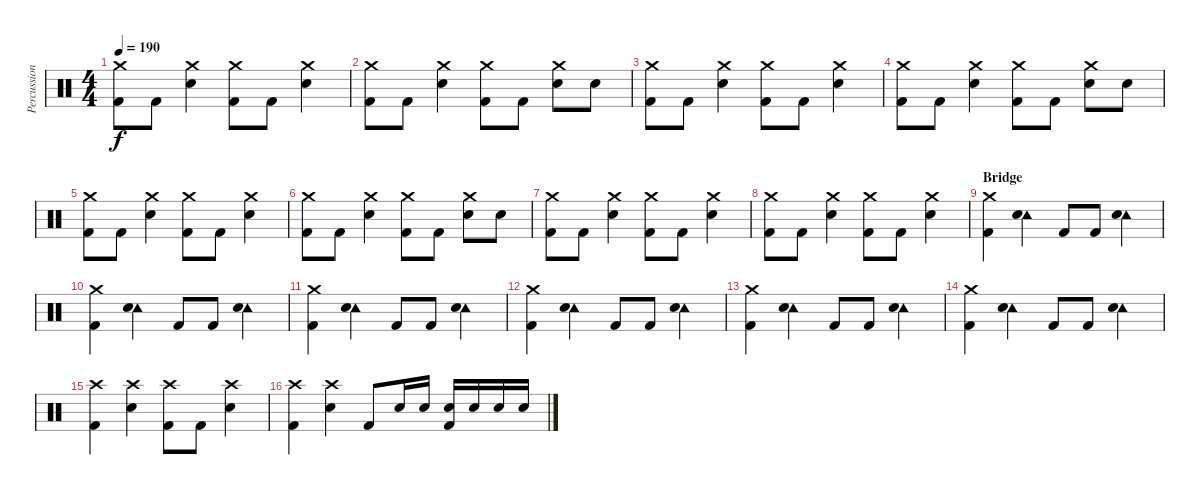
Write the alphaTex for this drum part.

\track ("Percussion" "Percussion") {instrument percussion}
\staff {score}
\articulation defaults
\ts (4 4)
\tempo 190
\clef neutral
\ks c
("Crash medium (hit)" "Kick (hit) 2").8{dy f} "Kick (hit) 2".8 ("Crash medium (hit)" "Snare (hit) 2").4 ("Crash medium (hit)" "Kick (hit) 2").8 "Kick (hit) 2".8 ("Crash medium (hit)" "Snare (hit) 2").4 |
("Crash medium (hit)" "Kick (hit) 2").8 "Kick (hit) 2".8 ("Crash medium (hit)" "Snare (hit) 2").4 ("Crash medium (hit)" "Kick (hit) 2").8 "Kick (hit) 2".8 ("Crash medium (hit)" "Snare (hit) 2").8 "Snare (hit) 2".8 |
("Crash medium (hit)" "Kick (hit) 2").8 "Kick (hit) 2".8 ("Crash medium (hit)" "Snare (hit) 2").4 ("Crash medium (hit)" "Kick (hit) 2").8 "Kick (hit) 2".8 ("Crash medium (hit)" "Snare (hit) 2").4 |
("Crash medium (hit)" "Kick (hit) 2").8 "Kick (hit) 2".8 ("Crash medium (hit)" "Snare (hit) 2").4 ("Crash medium (hit)" "Kick (hit) 2").8 "Kick (hit) 2".8 ("Crash medium (hit)" "Snare (hit) 2").8 "Snare (hit) 2".8 |
("Crash medium (hit)" "Kick (hit) 2").8 "Kick (hit) 2".8 ("Crash medium (hit)" "Snare (hit) 2").4 ("Crash medium (hit)" "Kick (hit) 2").8 "Kick (hit) 2".8 ("Crash medium (hit)" "Snare (hit) 2").4 |
("Crash medium (hit)" "Kick (hit) 2").8 "Kick (hit) 2".8 ("Crash medium (hit)" "Snare (hit) 2").4 ("Crash medium (hit)" "Kick (hit) 2").8 "Kick (hit) 2".8 ("Crash medium (hit)" "Snare (hit) 2").8 "Snare (hit) 2".8 |
("Crash medium (hit)" "Kick (hit) 2").8 "Kick (hit) 2".8 ("Crash medium (hit)" "Snare (hit) 2").4 ("Crash medium (hit)" "Kick (hit) 2").8 "Kick (hit) 2".8 ("Crash medium (hit)" "Snare (hit) 2").4 |
("Crash medium (hit)" "Kick (hit) 2").8 "Kick (hit) 2".8 ("Crash medium (hit)" "Snare (hit) 2").4 ("Crash medium (hit)" "Kick (hit) 2").8 "Kick (hit) 2".8 ("Crash medium (hit)" "Snare (hit) 2").4 |
\section ("" "Bridge")
("Crash medium (hit)" "Kick (hit) 2").4 ("Tambourine (hit)" "Snare (hit) 2").4 "Kick (hit) 2".8 "Kick (hit) 2".8 ("Tambourine (hit)" "Snare (hit) 2").4 |
("Crash medium (hit)" "Kick (hit) 2").4 ("Tambourine (hit)" "Snare (hit) 2").4 "Kick (hit) 2".8 "Kick (hit) 2".8 ("Tambourine (hit)" "Snare (hit) 2").4 |
("Crash medium (hit)" "Kick (hit) 2").4 ("Tambourine (hit)" "Snare (hit) 2").4 "Kick (hit) 2".8 "Kick (hit) 2".8 ("Tambourine (hit)" "Snare (hit) 2").4 |
("Crash medium (hit)" "Kick (hit) 2").4 ("Tambourine (hit)" "Snare (hit) 2").4 "Kick (hit) 2".8 "Kick (hit) 2".8 ("Tambourine (hit)" "Snare (hit) 2").4 |
("Crash medium (hit)" "Kick (hit) 2").4 ("Tambourine (hit)" "Snare (hit) 2").4 "Kick (hit) 2".8 "Kick (hit) 2".8 ("Tambourine (hit)" "Snare (hit) 2").4 |
("Crash medium (hit)" "Kick (hit) 2").4 ("Tambourine (hit)" "Snare (hit) 2").4 "Kick (hit) 2".8 "Kick (hit) 2".8 ("Tambourine (hit)" "Snare (hit) 2").4 |
("Crash high (hit)" "Kick (hit) 2").4 ("Crash high (hit)" "Snare (hit) 2").4 ("Crash high (hit)" "Kick (hit) 2").8 "Kick (hit) 2".8 ("Crash high (hit)" "Snare (hit) 2").4 |
("Crash high (hit)" "Kick (hit) 2").4 ("Crash high (hit)" "Snare (hit) 2").4 "Kick (hit) 2".8 "Snare (hit) 2".16 "Snare (hit) 2".16 ("Snare (hit) 2" "Kick (hit) 2").16 "Snare (hit) 2".16 "Snare (hit) 2".16 "Snare (hit) 2".16
